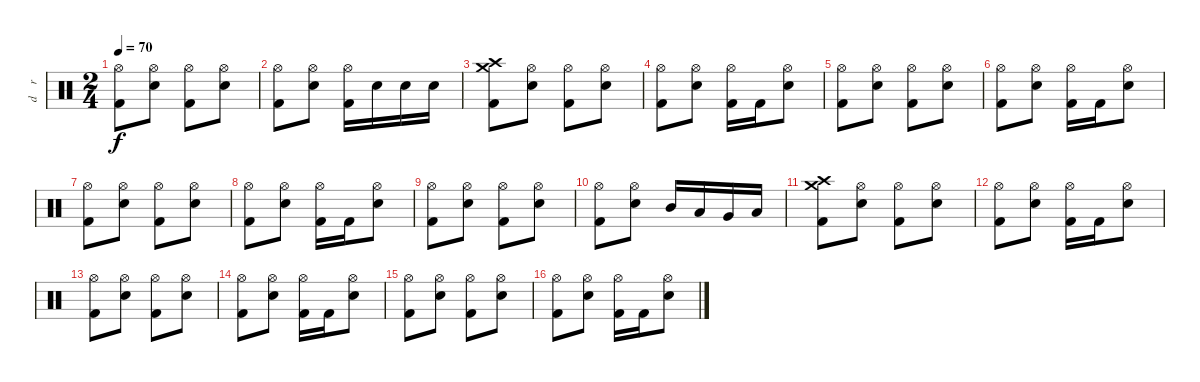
\track ("d    r     u    m    s" "d    r    ") {instrument percussion}
\staff {score}
\articulation defaults
\ts (2 4)
\tempo 70
\clef neutral
\ks c
("Hi-Hat (open)" "Kick (hit) 2").8{dy f} ("Hi-Hat (open)" "Electric Snare (hit)").8 ("Hi-Hat (open)" "Kick (hit) 2").8 ("Hi-Hat (open)" "Electric Snare (hit)").8 |
("Hi-Hat (open)" "Kick (hit) 2").8 ("Hi-Hat (open)" "Electric Snare (hit)").8 ("Hi-Hat (open)" "Kick (hit) 2").16 "Electric Snare (hit)".16 "Electric Snare (hit)".16 "Electric Snare (hit)".16 |
("Crash high (hit)" "Crash medium (hit)" "Kick (hit) 2").8 ("Hi-Hat (open)" "Electric Snare (hit)").8 ("Hi-Hat (open)" "Kick (hit) 2").8 ("Hi-Hat (open)" "Electric Snare (hit)").8 |
("Hi-Hat (open)" "Kick (hit) 2").8 ("Hi-Hat (open)" "Electric Snare (hit)").8 ("Hi-Hat (open)" "Kick (hit) 2").16 "Kick (hit) 2".16 ("Hi-Hat (open)" "Electric Snare (hit)").8 |
("Hi-Hat (open)" "Kick (hit) 2").8 ("Hi-Hat (open)" "Electric Snare (hit)").8 ("Hi-Hat (open)" "Kick (hit) 2").8 ("Hi-Hat (open)" "Electric Snare (hit)").8 |
("Hi-Hat (open)" "Kick (hit) 2").8 ("Hi-Hat (open)" "Electric Snare (hit)").8 ("Hi-Hat (open)" "Kick (hit) 2").16 "Kick (hit) 2".16 ("Hi-Hat (open)" "Electric Snare (hit)").8 |
("Hi-Hat (open)" "Kick (hit) 2").8 ("Hi-Hat (open)" "Electric Snare (hit)").8 ("Hi-Hat (open)" "Kick (hit) 2").8 ("Hi-Hat (open)" "Electric Snare (hit)").8 |
("Hi-Hat (open)" "Kick (hit) 2").8 ("Hi-Hat (open)" "Electric Snare (hit)").8 ("Hi-Hat (open)" "Kick (hit) 2").16 "Kick (hit) 2".16 ("Hi-Hat (open)" "Electric Snare (hit)").8 |
("Hi-Hat (open)" "Kick (hit) 2").8 ("Hi-Hat (open)" "Electric Snare (hit)").8 ("Hi-Hat (open)" "Kick (hit) 2").8 ("Hi-Hat (open)" "Electric Snare (hit)").8 |
("Hi-Hat (open)" "Kick (hit) 2").8 ("Hi-Hat (open)" "Electric Snare (hit)").8 "Mid Tom (hit)".16 "Low Tom (hit)".16 "Very Low Tom (hit)".16 "Low Floor Tom (hit)".16 |
("Crash high (hit)" "Crash medium (hit)" "Kick (hit) 2").8 ("Hi-Hat (open)" "Electric Snare (hit)").8 ("Hi-Hat (open)" "Kick (hit) 2").8 ("Hi-Hat (open)" "Electric Snare (hit)").8 |
("Hi-Hat (open)" "Kick (hit) 2").8 ("Hi-Hat (open)" "Electric Snare (hit)").8 ("Hi-Hat (open)" "Kick (hit) 2").16 "Kick (hit) 2".16 ("Hi-Hat (open)" "Electric Snare (hit)").8 |
("Hi-Hat (open)" "Kick (hit) 2").8 ("Hi-Hat (open)" "Electric Snare (hit)").8 ("Hi-Hat (open)" "Kick (hit) 2").8 ("Hi-Hat (open)" "Electric Snare (hit)").8 |
("Hi-Hat (open)" "Kick (hit) 2").8 ("Hi-Hat (open)" "Electric Snare (hit)").8 ("Hi-Hat (open)" "Kick (hit) 2").16 "Kick (hit) 2".16 ("Hi-Hat (open)" "Electric Snare (hit)").8 |
("Hi-Hat (open)" "Kick (hit) 2").8 ("Hi-Hat (open)" "Electric Snare (hit)").8 ("Hi-Hat (open)" "Kick (hit) 2").8 ("Hi-Hat (open)" "Electric Snare (hit)").8 |
("Hi-Hat (open)" "Kick (hit) 2").8 ("Hi-Hat (open)" "Electric Snare (hit)").8 ("Hi-Hat (open)" "Kick (hit) 2").16 "Kick (hit) 2".16 ("Hi-Hat (open)" "Electric Snare (hit)").8
